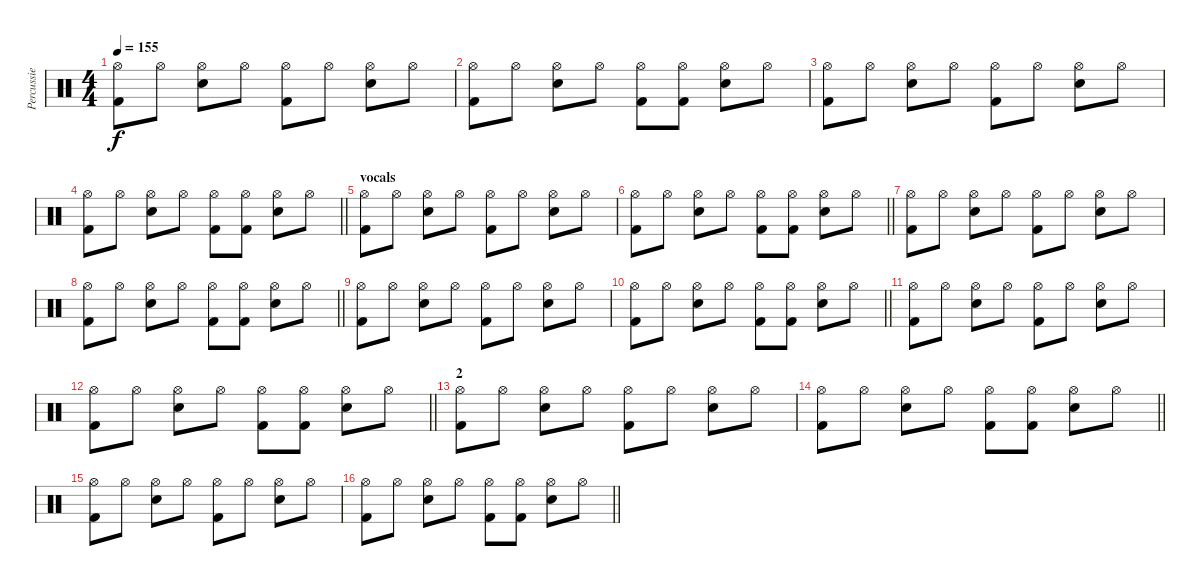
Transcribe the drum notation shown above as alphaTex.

\track ("Percussie" "Percussie") {instrument percussion}
\staff {score}
\articulation defaults
\ts (4 4)
\tempo 155
\clef neutral
\ks c
("Hi-Hat (open)" "Kick (hit) 2").8{dy f} "Hi-Hat (open)".8 ("Hi-Hat (open)" "Snare (hit) 2").8 "Hi-Hat (open)".8 ("Hi-Hat (open)" "Kick (hit) 2").8 "Hi-Hat (open)".8 ("Hi-Hat (open)" "Snare (hit) 2").8 "Hi-Hat (open)".8 |
("Hi-Hat (open)" "Kick (hit) 2").8 "Hi-Hat (open)".8 ("Hi-Hat (open)" "Snare (hit) 2").8 "Hi-Hat (open)".8 ("Hi-Hat (open)" "Kick (hit) 2").8 ("Hi-Hat (open)" "Kick (hit) 2").8 ("Hi-Hat (open)" "Snare (hit) 2").8 "Hi-Hat (open)".8 |
("Hi-Hat (open)" "Kick (hit) 2").8 "Hi-Hat (open)".8 ("Hi-Hat (open)" "Snare (hit) 2").8 "Hi-Hat (open)".8 ("Hi-Hat (open)" "Kick (hit) 2").8 "Hi-Hat (open)".8 ("Hi-Hat (open)" "Snare (hit) 2").8 "Hi-Hat (open)".8 |
\barLineRight lightlight
("Hi-Hat (open)" "Kick (hit) 2").8 "Hi-Hat (open)".8 ("Hi-Hat (open)" "Snare (hit) 2").8 "Hi-Hat (open)".8 ("Hi-Hat (open)" "Kick (hit) 2").8 ("Hi-Hat (open)" "Kick (hit) 2").8 ("Hi-Hat (open)" "Snare (hit) 2").8 "Hi-Hat (open)".8 |
\section ("" "vocals")
("Hi-Hat (open)" "Kick (hit) 2").8 "Hi-Hat (open)".8 ("Hi-Hat (open)" "Snare (hit) 2").8 "Hi-Hat (open)".8 ("Hi-Hat (open)" "Kick (hit) 2").8 "Hi-Hat (open)".8 ("Hi-Hat (open)" "Snare (hit) 2").8 "Hi-Hat (open)".8 |
\barLineRight lightlight
("Hi-Hat (open)" "Kick (hit) 2").8 "Hi-Hat (open)".8 ("Hi-Hat (open)" "Snare (hit) 2").8 "Hi-Hat (open)".8 ("Hi-Hat (open)" "Kick (hit) 2").8 ("Hi-Hat (open)" "Kick (hit) 2").8 ("Hi-Hat (open)" "Snare (hit) 2").8 "Hi-Hat (open)".8 |
("Hi-Hat (open)" "Kick (hit) 2").8 "Hi-Hat (open)".8 ("Hi-Hat (open)" "Snare (hit) 2").8 "Hi-Hat (open)".8 ("Hi-Hat (open)" "Kick (hit) 2").8 "Hi-Hat (open)".8 ("Hi-Hat (open)" "Snare (hit) 2").8 "Hi-Hat (open)".8 |
\barLineRight lightlight
("Hi-Hat (open)" "Kick (hit) 2").8 "Hi-Hat (open)".8 ("Hi-Hat (open)" "Snare (hit) 2").8 "Hi-Hat (open)".8 ("Hi-Hat (open)" "Kick (hit) 2").8 ("Hi-Hat (open)" "Kick (hit) 2").8 ("Hi-Hat (open)" "Snare (hit) 2").8 "Hi-Hat (open)".8 |
("Hi-Hat (open)" "Kick (hit) 2").8 "Hi-Hat (open)".8 ("Hi-Hat (open)" "Snare (hit) 2").8 "Hi-Hat (open)".8 ("Hi-Hat (open)" "Kick (hit) 2").8 "Hi-Hat (open)".8 ("Hi-Hat (open)" "Snare (hit) 2").8 "Hi-Hat (open)".8 |
\barLineRight lightlight
("Hi-Hat (open)" "Kick (hit) 2").8 "Hi-Hat (open)".8 ("Hi-Hat (open)" "Snare (hit) 2").8 "Hi-Hat (open)".8 ("Hi-Hat (open)" "Kick (hit) 2").8 ("Hi-Hat (open)" "Kick (hit) 2").8 ("Hi-Hat (open)" "Snare (hit) 2").8 "Hi-Hat (open)".8 |
("Hi-Hat (open)" "Kick (hit) 2").8 "Hi-Hat (open)".8 ("Hi-Hat (open)" "Snare (hit) 2").8 "Hi-Hat (open)".8 ("Hi-Hat (open)" "Kick (hit) 2").8 "Hi-Hat (open)".8 ("Hi-Hat (open)" "Snare (hit) 2").8 "Hi-Hat (open)".8 |
\barLineRight lightlight
("Hi-Hat (open)" "Kick (hit) 2").8 "Hi-Hat (open)".8 ("Hi-Hat (open)" "Snare (hit) 2").8 "Hi-Hat (open)".8 ("Hi-Hat (open)" "Kick (hit) 2").8 ("Hi-Hat (open)" "Kick (hit) 2").8 ("Hi-Hat (open)" "Snare (hit) 2").8 "Hi-Hat (open)".8 |
\section ("" "2")
("Hi-Hat (open)" "Kick (hit) 2").8 "Hi-Hat (open)".8 ("Hi-Hat (open)" "Snare (hit) 2").8 "Hi-Hat (open)".8 ("Hi-Hat (open)" "Kick (hit) 2").8 "Hi-Hat (open)".8 ("Hi-Hat (open)" "Snare (hit) 2").8 "Hi-Hat (open)".8 |
\barLineRight lightlight
("Hi-Hat (open)" "Kick (hit) 2").8 "Hi-Hat (open)".8 ("Hi-Hat (open)" "Snare (hit) 2").8 "Hi-Hat (open)".8 ("Hi-Hat (open)" "Kick (hit) 2").8 ("Hi-Hat (open)" "Kick (hit) 2").8 ("Hi-Hat (open)" "Snare (hit) 2").8 "Hi-Hat (open)".8 |
("Hi-Hat (open)" "Kick (hit) 2").8 "Hi-Hat (open)".8 ("Hi-Hat (open)" "Snare (hit) 2").8 "Hi-Hat (open)".8 ("Hi-Hat (open)" "Kick (hit) 2").8 "Hi-Hat (open)".8 ("Hi-Hat (open)" "Snare (hit) 2").8 "Hi-Hat (open)".8 |
\barLineRight lightlight
("Hi-Hat (open)" "Kick (hit) 2").8 "Hi-Hat (open)".8 ("Hi-Hat (open)" "Snare (hit) 2").8 "Hi-Hat (open)".8 ("Hi-Hat (open)" "Kick (hit) 2").8 ("Hi-Hat (open)" "Kick (hit) 2").8 ("Hi-Hat (open)" "Snare (hit) 2").8 "Hi-Hat (open)".8
